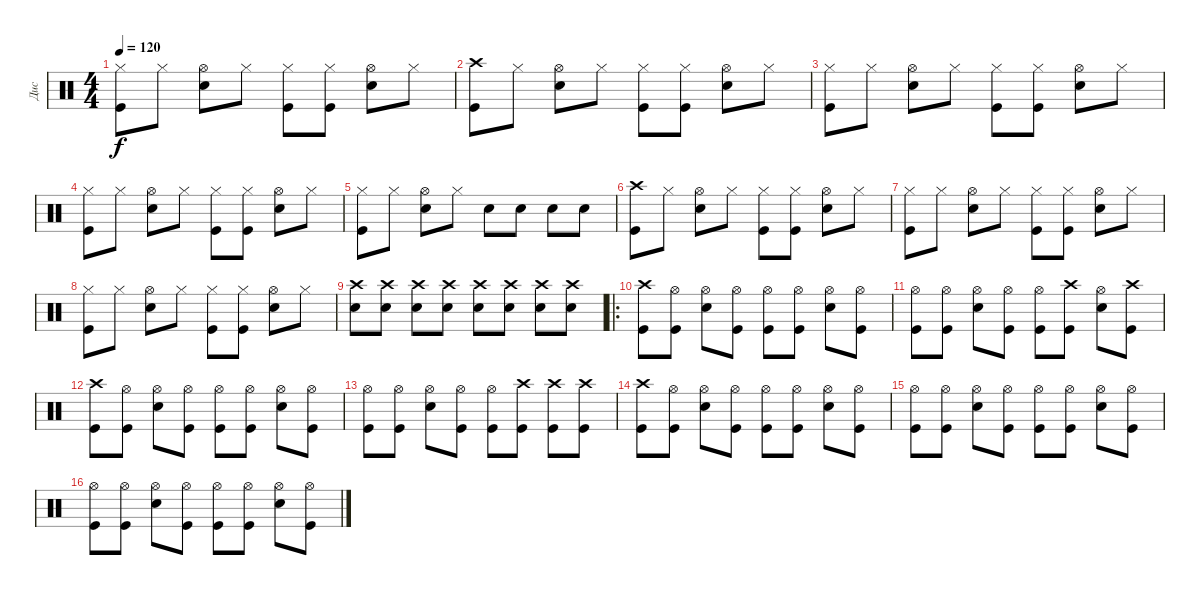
\track ("Дис" "Дис") {instrument percussion}
\staff {score}
\articulation defaults
\ts (4 4)
\tempo 120
\clef neutral
\ks c
("Hi-Hat (closed)" "Kick (hit)").8{dy f} "Hi-Hat (closed)".8 ("Hi-Hat (open)" "Electric Snare (hit)").8 "Hi-Hat (closed)".8 ("Hi-Hat (closed)" "Kick (hit)").8 ("Hi-Hat (closed)" "Kick (hit)").8 ("Hi-Hat (open)" "Electric Snare (hit)").8 "Hi-Hat (closed)".8 |
("Crash high (hit)" "Kick (hit)").8 "Hi-Hat (closed)".8 ("Hi-Hat (open)" "Electric Snare (hit)").8 "Hi-Hat (closed)".8 ("Hi-Hat (closed)" "Kick (hit)").8 ("Hi-Hat (closed)" "Kick (hit)").8 ("Hi-Hat (open)" "Electric Snare (hit)").8 "Hi-Hat (closed)".8 |
("Hi-Hat (closed)" "Kick (hit)").8 "Hi-Hat (closed)".8 ("Hi-Hat (open)" "Electric Snare (hit)").8 "Hi-Hat (closed)".8 ("Hi-Hat (closed)" "Kick (hit)").8 ("Hi-Hat (closed)" "Kick (hit)").8 ("Hi-Hat (open)" "Electric Snare (hit)").8 "Hi-Hat (closed)".8 |
("Hi-Hat (closed)" "Kick (hit)").8 "Hi-Hat (closed)".8 ("Hi-Hat (open)" "Electric Snare (hit)").8 "Hi-Hat (closed)".8 ("Hi-Hat (closed)" "Kick (hit)").8 ("Hi-Hat (closed)" "Kick (hit)").8 ("Hi-Hat (open)" "Electric Snare (hit)").8 "Hi-Hat (closed)".8 |
("Hi-Hat (closed)" "Kick (hit)").8 "Hi-Hat (closed)".8 ("Hi-Hat (open)" "Electric Snare (hit)").8 "Hi-Hat (closed)".8 "Electric Snare (hit)".8 "Electric Snare (hit)".8 "Electric Snare (hit)".8 "Electric Snare (hit)".8 |
("Crash high (hit)" "Kick (hit)").8 "Hi-Hat (closed)".8 ("Hi-Hat (open)" "Electric Snare (hit)").8 "Hi-Hat (closed)".8 ("Hi-Hat (closed)" "Kick (hit)").8 ("Hi-Hat (closed)" "Kick (hit)").8 ("Hi-Hat (open)" "Electric Snare (hit)").8 "Hi-Hat (closed)".8 |
("Hi-Hat (closed)" "Kick (hit)").8 "Hi-Hat (closed)".8 ("Hi-Hat (open)" "Electric Snare (hit)").8 "Hi-Hat (closed)".8 ("Hi-Hat (closed)" "Kick (hit)").8 ("Hi-Hat (closed)" "Kick (hit)").8 ("Hi-Hat (open)" "Electric Snare (hit)").8 "Hi-Hat (closed)".8 |
("Hi-Hat (closed)" "Kick (hit)").8 "Hi-Hat (closed)".8 ("Hi-Hat (open)" "Electric Snare (hit)").8 "Hi-Hat (closed)".8 ("Hi-Hat (closed)" "Kick (hit)").8 ("Hi-Hat (closed)" "Kick (hit)").8 ("Hi-Hat (open)" "Electric Snare (hit)").8 "Hi-Hat (closed)".8 |
("Crash high (hit)" "Electric Snare (hit)").8 ("Crash high (hit)" "Electric Snare (hit)").8 ("Crash high (hit)" "Electric Snare (hit)").8 ("Crash high (hit)" "Electric Snare (hit)").8 ("Crash high (hit)" "Electric Snare (hit)").8 ("Crash high (hit)" "Electric Snare (hit)").8 ("Crash high (hit)" "Electric Snare (hit)").8 ("Crash high (hit)" "Electric Snare (hit)").8 |
\ro
("Crash high (hit)" "Kick (hit)").8 ("Hi-Hat (open)" "Kick (hit)").8 ("Hi-Hat (open)" "Electric Snare (hit)").8 ("Hi-Hat (open)" "Kick (hit)").8 ("Hi-Hat (open)" "Kick (hit)").8 ("Hi-Hat (open)" "Kick (hit)").8 ("Hi-Hat (open)" "Electric Snare (hit)").8 ("Hi-Hat (open)" "Kick (hit)").8 |
("Hi-Hat (open)" "Kick (hit)").8 ("Hi-Hat (open)" "Kick (hit)").8 ("Hi-Hat (open)" "Electric Snare (hit)").8 ("Hi-Hat (open)" "Kick (hit)").8 ("Hi-Hat (open)" "Kick (hit)").8 ("Crash high (hit)" "Kick (hit)").8 ("Hi-Hat (open)" "Electric Snare (hit)").8 ("Crash high (hit)" "Kick (hit)").8 |
("Crash high (hit)" "Kick (hit)").8 ("Hi-Hat (open)" "Kick (hit)").8 ("Hi-Hat (open)" "Electric Snare (hit)").8 ("Hi-Hat (open)" "Kick (hit)").8 ("Hi-Hat (open)" "Kick (hit)").8 ("Hi-Hat (open)" "Kick (hit)").8 ("Hi-Hat (open)" "Electric Snare (hit)").8 ("Hi-Hat (open)" "Kick (hit)").8 |
("Hi-Hat (open)" "Kick (hit)").8 ("Hi-Hat (open)" "Kick (hit)").8 ("Hi-Hat (open)" "Electric Snare (hit)").8 ("Hi-Hat (open)" "Kick (hit)").8 ("Hi-Hat (open)" "Kick (hit)").8 ("Crash high (hit)" "Kick (hit)").8 ("Crash high (hit)" "Kick (hit)").8 ("Crash high (hit)" "Kick (hit)").8 |
("Crash high (hit)" "Kick (hit)").8 ("Hi-Hat (open)" "Kick (hit)").8 ("Hi-Hat (open)" "Electric Snare (hit)").8 ("Hi-Hat (open)" "Kick (hit)").8 ("Hi-Hat (open)" "Kick (hit)").8 ("Hi-Hat (open)" "Kick (hit)").8 ("Hi-Hat (open)" "Electric Snare (hit)").8 ("Hi-Hat (open)" "Kick (hit)").8 |
("Hi-Hat (open)" "Kick (hit)").8 ("Hi-Hat (open)" "Kick (hit)").8 ("Hi-Hat (open)" "Electric Snare (hit)").8 ("Hi-Hat (open)" "Kick (hit)").8 ("Hi-Hat (open)" "Kick (hit)").8 ("Hi-Hat (open)" "Kick (hit)").8 ("Hi-Hat (open)" "Electric Snare (hit)").8 ("Hi-Hat (open)" "Kick (hit)").8 |
("Hi-Hat (open)" "Kick (hit)").8 ("Hi-Hat (open)" "Kick (hit)").8 ("Hi-Hat (open)" "Electric Snare (hit)").8 ("Hi-Hat (open)" "Kick (hit)").8 ("Hi-Hat (open)" "Kick (hit)").8 ("Hi-Hat (open)" "Kick (hit)").8 ("Hi-Hat (open)" "Electric Snare (hit)").8 ("Hi-Hat (open)" "Kick (hit)").8
